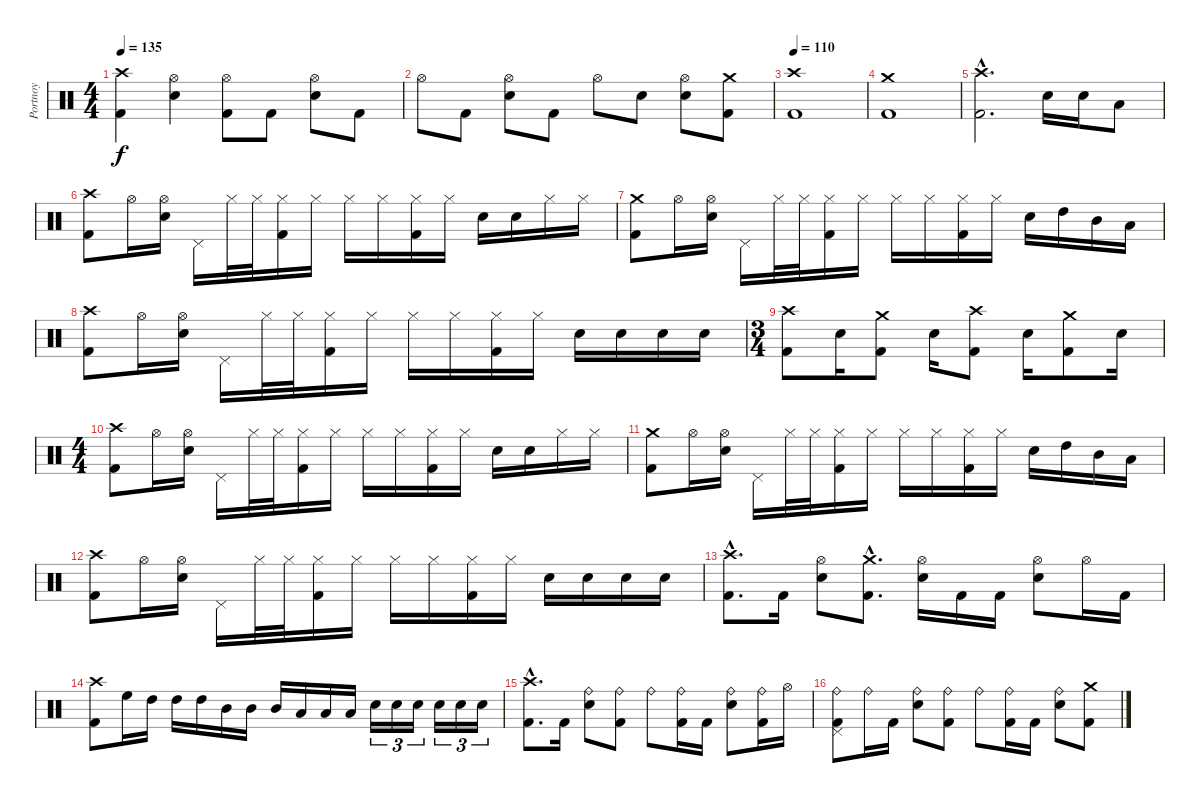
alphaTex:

\track ("Portnoy" "Portnoy") {instrument percussion}
\staff {score}
\articulation defaults
\ts (4 4)
\tempo 135
\clef neutral
\ks c
("Kick (hit) 2" "Crash high (hit)").4{dy f} ("Hi-Hat (open)" "Snare (hit) 2").4 ("Kick (hit) 2" "Hi-Hat (open)").8 "Kick (hit) 2".8 ("Hi-Hat (open)" "Snare (hit) 2").8 "Kick (hit) 2".8 |
"Hi-Hat (open)".8 "Kick (hit) 2".8 ("Hi-Hat (open)" "Snare (hit) 2").8 "Kick (hit) 2".8 "Hi-Hat (open)".8 "Snare (hit) 2".8 ("Hi-Hat (open)" "Snare (hit) 2").8 ("Kick (hit) 2" "Crash medium (hit)").8 |
\tempo 110
("Kick (hit) 2" "Crash high (hit)").1 |
("Kick (hit) 2" "Crash medium (hit)").1 |
("Kick (hit) 2"{hac} "Crash high (hit)"{hac}).2{d} "Snare (hit) 2".16 "Snare (hit) 2".16 "Low Tom (hit)".8 |
("Kick (hit) 2" "Crash high (hit)").8 "Hi-Hat (open)".16 ("Hi-Hat (open)" "Snare (hit) 2").16 "Pedal Hi-Hat (hit)".16 "Hi-Hat (closed)".32 "Hi-Hat (closed)".32 ("Kick (hit) 2" "Hi-Hat (closed)").16 "Hi-Hat (closed)".16 "Hi-Hat (closed)".16 "Hi-Hat (closed)".16 ("Kick (hit) 2" "Hi-Hat (closed)").16 "Hi-Hat (closed)".16 "Snare (hit) 2".16 "Snare (hit) 2".16 "Hi-Hat (closed)".16 "Hi-Hat (closed)".16 |
("Kick (hit) 2" "Crash medium (hit)").8 "Hi-Hat (open)".16 ("Hi-Hat (open)" "Snare (hit) 2").16 "Pedal Hi-Hat (hit)".16 "Hi-Hat (closed)".32 "Hi-Hat (closed)".32 ("Kick (hit) 2" "Hi-Hat (closed)").16 "Hi-Hat (closed)".16 "Hi-Hat (closed)".16 "Hi-Hat (closed)".16 ("Kick (hit) 2" "Hi-Hat (closed)").16 "Hi-Hat (closed)".16 "Snare (hit) 2".16 "High Tom (hit)".16 "Mid Tom (hit)".16 "Low Tom (hit)".16 |
("Kick (hit) 2" "Crash high (hit)").8 "Hi-Hat (open)".16 ("Hi-Hat (open)" "Snare (hit) 2").16 "Pedal Hi-Hat (hit)".16 "Hi-Hat (closed)".32 "Hi-Hat (closed)".32 ("Kick (hit) 2" "Hi-Hat (closed)").16 "Hi-Hat (closed)".16 "Hi-Hat (closed)".16 "Hi-Hat (closed)".16 ("Kick (hit) 2" "Hi-Hat (closed)").16 "Hi-Hat (closed)".16 "Snare (hit) 2".16 "Snare (hit) 2".16 "Snare (hit) 2".16 "Snare (hit) 2".16 |
\ts (3 4)
("Kick (hit) 2" "Crash high (hit)").8 "Snare (hit) 2".16 ("Kick (hit) 2" "Crash medium (hit)").8 "Snare (hit) 2".16 ("Kick (hit) 2" "Crash high (hit)").8 "Snare (hit) 2".16 ("Kick (hit) 2" "Crash medium (hit)").8 "Snare (hit) 2".16 |
\ts (4 4)
("Kick (hit) 2" "Crash high (hit)").8 "Hi-Hat (open)".16 ("Hi-Hat (open)" "Snare (hit) 2").16 "Pedal Hi-Hat (hit)".16 "Hi-Hat (closed)".32 "Hi-Hat (closed)".32 ("Kick (hit) 2" "Hi-Hat (closed)").16 "Hi-Hat (closed)".16 "Hi-Hat (closed)".16 "Hi-Hat (closed)".16 ("Kick (hit) 2" "Hi-Hat (closed)").16 "Hi-Hat (closed)".16 "Snare (hit) 2".16 "Snare (hit) 2".16 "Hi-Hat (closed)".16 "Hi-Hat (closed)".16 |
("Kick (hit) 2" "Crash medium (hit)").8 "Hi-Hat (open)".16 ("Hi-Hat (open)" "Snare (hit) 2").16 "Pedal Hi-Hat (hit)".16 "Hi-Hat (closed)".32 "Hi-Hat (closed)".32 ("Kick (hit) 2" "Hi-Hat (closed)").16 "Hi-Hat (closed)".16 "Hi-Hat (closed)".16 "Hi-Hat (closed)".16 ("Kick (hit) 2" "Hi-Hat (closed)").16 "Hi-Hat (closed)".16 "Snare (hit) 2".16 "High Tom (hit)".16 "Mid Tom (hit)".16 "Low Tom (hit)".16 |
("Kick (hit) 2" "Crash high (hit)").8 "Hi-Hat (open)".16 ("Hi-Hat (open)" "Snare (hit) 2").16 "Pedal Hi-Hat (hit)".16 "Hi-Hat (closed)".32 "Hi-Hat (closed)".32 ("Kick (hit) 2" "Hi-Hat (closed)").16 "Hi-Hat (closed)".16 "Hi-Hat (closed)".16 "Hi-Hat (closed)".16 ("Kick (hit) 2" "Hi-Hat (closed)").16 "Hi-Hat (closed)".16 "Snare (hit) 2".16 "Snare (hit) 2".16 "Snare (hit) 2".16 "Snare (hit) 2".16 |
("Kick (hit) 2"{hac} "Crash high (hit)"{hac}).8{d} "Kick (hit) 2".16 ("Hi-Hat (open)" "Snare (hit) 2").8 ("Kick (hit) 2"{hac} "Crash medium (hit)"{hac}).8{d} ("Hi-Hat (open)" "Snare (hit) 2").16 "Kick (hit) 2".16 "Kick (hit) 2".16 ("Hi-Hat (open)" "Snare (hit) 2").8 "Hi-Hat (open)".16 "Kick (hit) 2".16 |
("Kick (hit) 2" "Crash high (hit)").8 "High Floor Tom (hit)".16 "High Tom (hit)".16 "High Tom (hit)".16 "High Tom (hit)".16 "Mid Tom (hit)".16 "Mid Tom (hit)".16 "Mid Tom (hit)".16 "Low Tom (hit)".16 "Low Tom (hit)".16 "Low Tom (hit)".16 "Snare (hit) 2".16{tu (3 2)} "Snare (hit) 2".16{tu (3 2)} "Snare (hit) 2".16{tu (3 2)} "Snare (hit) 2".16{tu (3 2)} "Snare (hit) 2".16{tu (3 2)} "Snare (hit) 2".16{tu (3 2)} |
("Kick (hit) 2"{hac} "Crash high (hit)"{hac}).8{d} "Kick (hit) 2".16 ("Ride (bell)" "Snare (hit) 2").8 ("Kick (hit) 2" "Ride (bell)").8 "Ride (bell)".8 ("Kick (hit) 2" "Ride (bell)").16 "Kick (hit) 2".16 ("Ride (bell)" "Snare (hit) 2").8 ("Kick (hit) 2" "Ride (bell)").16 "Hi-Hat (open)".16 |
("Kick (hit) 2" "Pedal Hi-Hat (hit)" "Ride (bell)").8 "Ride (bell)".16 "Kick (hit) 2".16 ("Ride (bell)" "Snare (hit) 2").8 ("Kick (hit) 2" "Ride (bell)").8 "Ride (bell)".8 ("Kick (hit) 2" "Ride (bell)").16 "Kick (hit) 2".16 ("Ride (bell)" "Snare (hit) 2").8 ("Kick (hit) 2" "Crash medium (hit)").8
